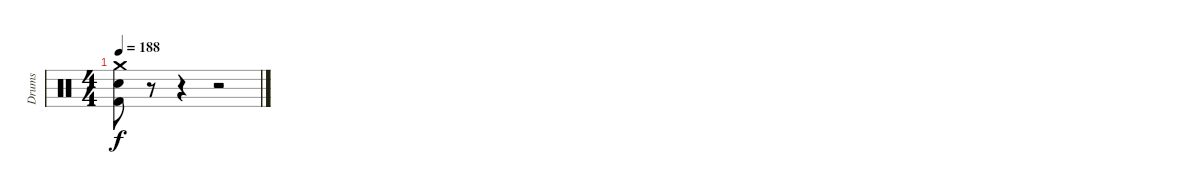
\track ("Drums" "Drums") {instrument percussion}
\staff {score}
\articulation defaults
\ts (4 4)
\tempo 188
\clef neutral
\ks c
("Crash medium (hit)" "Snare (hit) 2" "Kick (hit) 2").8{dy f} r.8 r.4 r.2
